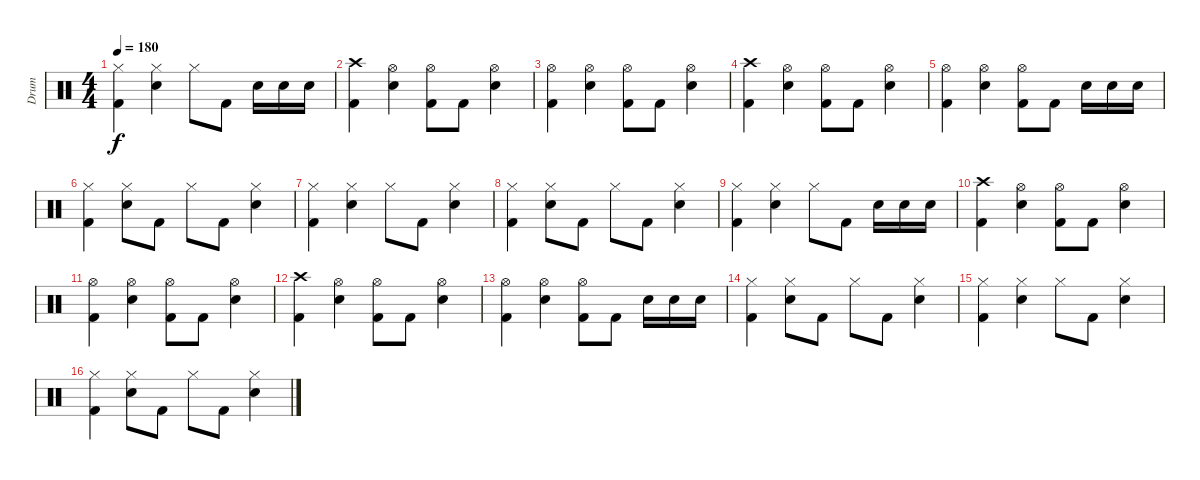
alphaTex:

\track ("Drum" "Drum") {instrument percussion}
\staff {score}
\articulation defaults
\ts (4 4)
\tempo 180
\clef neutral
\ks c
("Hi-Hat (closed)" "Kick (hit) 2").4{dy f} ("Hi-Hat (closed)" "Electric Snare (hit)").4 "Hi-Hat (closed)".8 "Kick (hit) 2".8 "Electric Snare (hit)".16 "Electric Snare (hit)".16 "Electric Snare (hit)".16 |
("Crash high (hit)" "Kick (hit) 2").4 ("Hi-Hat (open)" "Electric Snare (hit)").4 ("Hi-Hat (open)" "Kick (hit) 2").8 "Kick (hit) 2".8 ("Hi-Hat (open)" "Electric Snare (hit)").4 |
("Hi-Hat (open)" "Kick (hit) 2").4 ("Hi-Hat (open)" "Electric Snare (hit)").4 ("Hi-Hat (open)" "Kick (hit) 2").8 "Kick (hit) 2".8 ("Hi-Hat (open)" "Electric Snare (hit)").4 |
("Crash high (hit)" "Kick (hit) 2").4 ("Hi-Hat (open)" "Electric Snare (hit)").4 ("Hi-Hat (open)" "Kick (hit) 2").8 "Kick (hit) 2".8 ("Hi-Hat (open)" "Electric Snare (hit)").4 |
("Hi-Hat (open)" "Kick (hit) 2").4 ("Hi-Hat (open)" "Electric Snare (hit)").4 ("Hi-Hat (open)" "Kick (hit) 2").8 "Kick (hit) 2".8 "Electric Snare (hit)".16 "Electric Snare (hit)".16 "Electric Snare (hit)".16 |
("Hi-Hat (closed)" "Kick (hit) 2").4 ("Hi-Hat (closed)" "Electric Snare (hit)").8 "Kick (hit) 2".8 "Hi-Hat (closed)".8 "Kick (hit) 2".8 ("Hi-Hat (closed)" "Electric Snare (hit)").4 |
("Hi-Hat (closed)" "Kick (hit) 2").4 ("Hi-Hat (closed)" "Electric Snare (hit)").4 "Hi-Hat (closed)".8 "Kick (hit) 2".8 ("Hi-Hat (closed)" "Electric Snare (hit)").4 |
("Hi-Hat (closed)" "Kick (hit) 2").4 ("Hi-Hat (closed)" "Electric Snare (hit)").8 "Kick (hit) 2".8 "Hi-Hat (closed)".8 "Kick (hit) 2".8 ("Hi-Hat (closed)" "Electric Snare (hit)").4 |
("Hi-Hat (closed)" "Kick (hit) 2").4 ("Hi-Hat (closed)" "Electric Snare (hit)").4 "Hi-Hat (closed)".8 "Kick (hit) 2".8 "Electric Snare (hit)".16 "Electric Snare (hit)".16 "Electric Snare (hit)".16 |
("Crash high (hit)" "Kick (hit) 2").4 ("Hi-Hat (open)" "Electric Snare (hit)").4 ("Hi-Hat (open)" "Kick (hit) 2").8 "Kick (hit) 2".8 ("Hi-Hat (open)" "Electric Snare (hit)").4 |
("Hi-Hat (open)" "Kick (hit) 2").4 ("Hi-Hat (open)" "Electric Snare (hit)").4 ("Hi-Hat (open)" "Kick (hit) 2").8 "Kick (hit) 2".8 ("Hi-Hat (open)" "Electric Snare (hit)").4 |
("Crash high (hit)" "Kick (hit) 2").4 ("Hi-Hat (open)" "Electric Snare (hit)").4 ("Hi-Hat (open)" "Kick (hit) 2").8 "Kick (hit) 2".8 ("Hi-Hat (open)" "Electric Snare (hit)").4 |
("Hi-Hat (open)" "Kick (hit) 2").4 ("Hi-Hat (open)" "Electric Snare (hit)").4 ("Hi-Hat (open)" "Kick (hit) 2").8 "Kick (hit) 2".8 "Electric Snare (hit)".16 "Electric Snare (hit)".16 "Electric Snare (hit)".16 |
("Hi-Hat (closed)" "Kick (hit) 2").4 ("Hi-Hat (closed)" "Electric Snare (hit)").8 "Kick (hit) 2".8 "Hi-Hat (closed)".8 "Kick (hit) 2".8 ("Hi-Hat (closed)" "Electric Snare (hit)").4 |
("Hi-Hat (closed)" "Kick (hit) 2").4 ("Hi-Hat (closed)" "Electric Snare (hit)").4 "Hi-Hat (closed)".8 "Kick (hit) 2".8 ("Hi-Hat (closed)" "Electric Snare (hit)").4 |
("Hi-Hat (closed)" "Kick (hit) 2").4 ("Hi-Hat (closed)" "Electric Snare (hit)").8 "Kick (hit) 2".8 "Hi-Hat (closed)".8 "Kick (hit) 2".8 ("Hi-Hat (closed)" "Electric Snare (hit)").4
